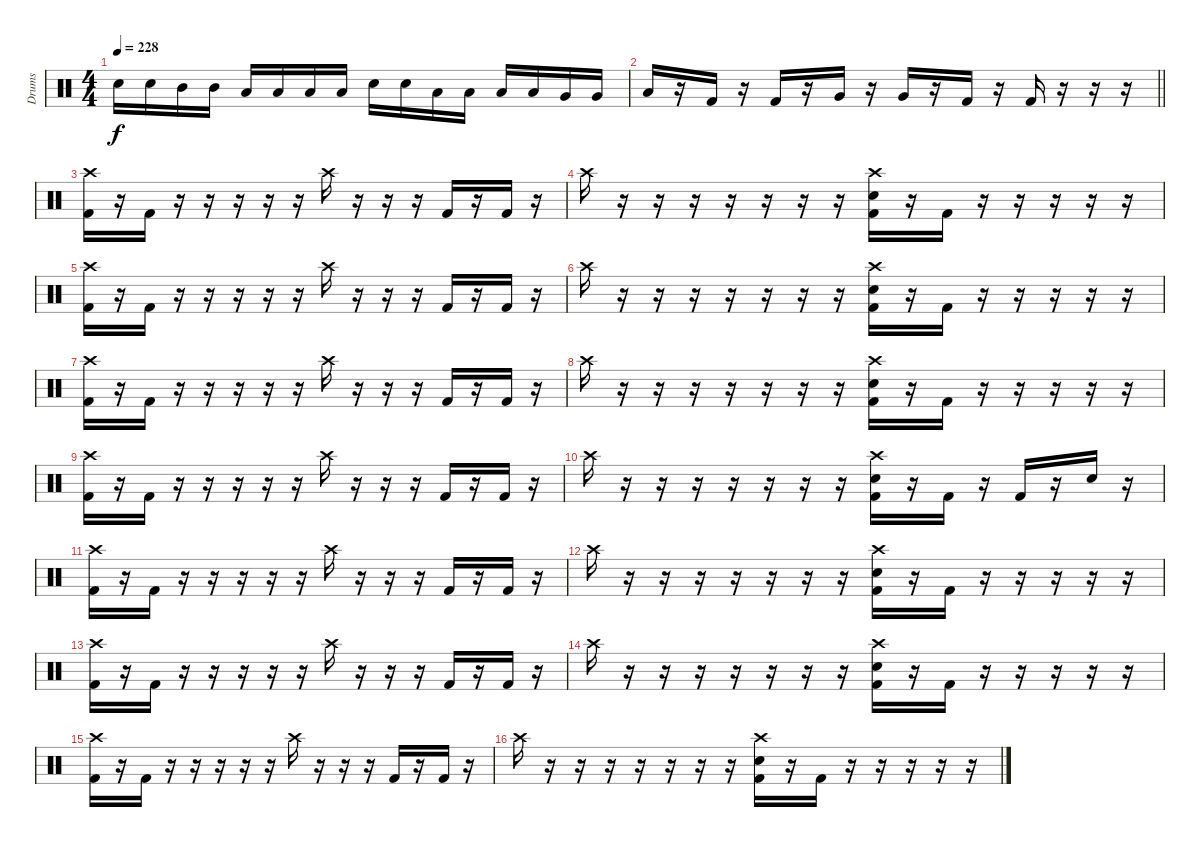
\track ("Drums" "Drums") {instrument percussion}
\staff {score}
\articulation defaults
\ts (4 4)
\tempo 228
\clef neutral
\ks c "Snare (hit) 2".16{dy f} "Snare (hit) 2".16 "Mid Tom (hit)".16 "Mid Tom (hit)".16 "Low Tom (hit)".16 "Low Tom (hit)".16 "Low Tom (hit)".16 "Low Tom (hit)".16 "Snare (hit) 2".16 "Snare (hit) 2".16 "Low Tom (hit)".16 "Low Tom (hit)".16 "Low Tom (hit)".16 "Low Tom (hit)".16 "Very Low Tom (hit)".16 "Very Low Tom (hit)".16
|
\barLineRight lightlight "Low Tom (hit)".16
r.16 "Kick (hit) 2".16 r.16 "Kick (hit) 2".16 r.16 "Very Low Tom (hit)".16 r.16 "Very Low Tom (hit)".16 r.16 "Kick (hit) 2".16 r.16 "Kick (hit) 2".16 r.16 r.16 r.16 |
("Crash high (hit)" "Kick (hit) 2").16 r.16 "Kick (hit) 2".16 r.16 r.16 r.16 r.16 r.16 "Crash high (hit)".16 r.16 r.16 r.16 "Kick (hit) 2".16 r.16 "Kick (hit) 2".16 r.16 |
"Crash high (hit)".16 r.16 r.16 r.16 r.16 r.16 r.16 r.16 ("Crash high (hit)" "Snare (hit) 2" "Kick (hit) 2").16 r.16 "Kick (hit) 2".16 r.16 r.16 r.16 r.16 r.16 |
("Crash high (hit)" "Kick (hit) 2").16 r.16 "Kick (hit) 2".16 r.16 r.16 r.16 r.16 r.16 "Crash high (hit)".16 r.16 r.16 r.16 "Kick (hit) 2".16 r.16 "Kick (hit) 2".16 r.16 |
"Crash high (hit)".16 r.16 r.16 r.16 r.16 r.16 r.16 r.16 ("Crash high (hit)" "Snare (hit) 2" "Kick (hit) 2").16 r.16 "Kick (hit) 2".16 r.16 r.16 r.16 r.16 r.16 |
("Crash high (hit)" "Kick (hit) 2").16 r.16 "Kick (hit) 2".16 r.16 r.16 r.16 r.16 r.16 "Crash high (hit)".16 r.16 r.16 r.16 "Kick (hit) 2".16 r.16 "Kick (hit) 2".16 r.16 |
"Crash high (hit)".16 r.16 r.16 r.16 r.16 r.16 r.16 r.16 ("Crash high (hit)" "Snare (hit) 2" "Kick (hit) 2").16 r.16 "Kick (hit) 2".16 r.16 r.16 r.16 r.16 r.16 |
("Crash high (hit)" "Kick (hit) 2").16 r.16 "Kick (hit) 2".16 r.16 r.16 r.16 r.16 r.16 "Crash high (hit)".16 r.16 r.16 r.16 "Kick (hit) 2".16 r.16 "Kick (hit) 2".16 r.16 |
"Crash high (hit)".16 r.16 r.16 r.16 r.16 r.16 r.16 r.16 ("Crash high (hit)" "Snare (hit) 2" "Kick (hit) 2").16 r.16 "Kick (hit) 2".16 r.16 "Kick (hit) 2".16 r.16 "Snare (hit) 2".16 r.16 |
("Crash high (hit)" "Kick (hit) 2").16 r.16 "Kick (hit) 2".16 r.16 r.16 r.16 r.16 r.16 "Crash high (hit)".16 r.16 r.16 r.16 "Kick (hit) 2".16 r.16 "Kick (hit) 2".16 r.16 |
"Crash high (hit)".16 r.16 r.16 r.16 r.16 r.16 r.16 r.16 ("Crash high (hit)" "Snare (hit) 2" "Kick (hit) 2").16 r.16 "Kick (hit) 2".16 r.16 r.16 r.16 r.16 r.16 |
("Crash high (hit)" "Kick (hit) 2").16 r.16 "Kick (hit) 2".16 r.16 r.16 r.16 r.16 r.16 "Crash high (hit)".16 r.16 r.16 r.16 "Kick (hit) 2".16 r.16 "Kick (hit) 2".16 r.16 |
"Crash high (hit)".16 r.16 r.16 r.16 r.16 r.16 r.16 r.16 ("Crash high (hit)" "Snare (hit) 2" "Kick (hit) 2").16 r.16 "Kick (hit) 2".16 r.16 r.16 r.16 r.16 r.16 |
("Crash high (hit)" "Kick (hit) 2").16 r.16 "Kick (hit) 2".16 r.16 r.16 r.16 r.16 r.16 "Crash high (hit)".16 r.16 r.16 r.16 "Kick (hit) 2".16 r.16 "Kick (hit) 2".16 r.16 |
"Crash high (hit)".16 r.16 r.16 r.16 r.16 r.16 r.16 r.16 ("Crash high (hit)" "Snare (hit) 2" "Kick (hit) 2").16 r.16 "Kick (hit) 2".16 r.16 r.16 r.16 r.16 r.16
